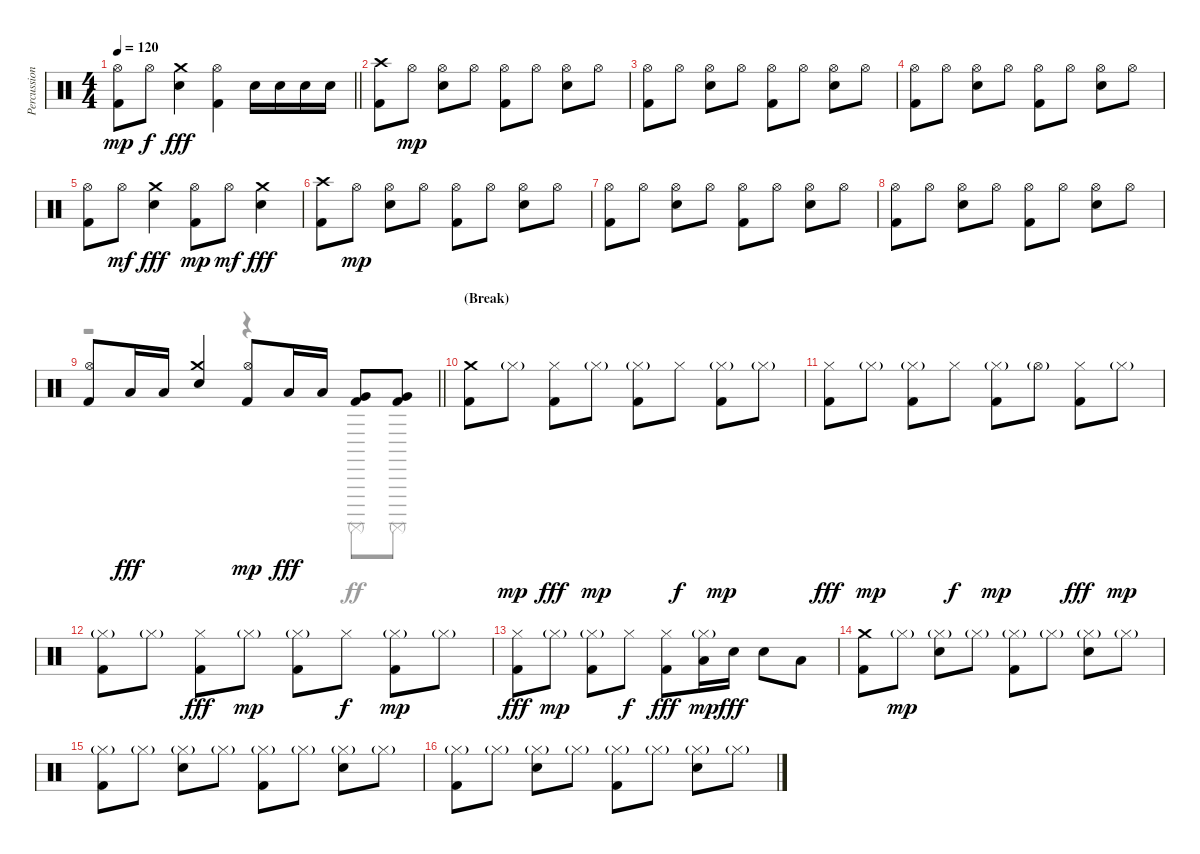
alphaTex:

\track ("Percussions" "Percussion") {instrument percussion}
\staff {score}
\articulation defaults
\voice
\ts (4 4)
\tempo 120
\clef neutral
\barLineRight lightlight
\ks c
("Kick (hit) 2" "Hi-Hat (open)").8{dy mp} "Hi-Hat (open)".8{dy f} ("Electric Snare (hit)" "Crash medium (hit)").4{dy fff} ("Kick (hit) 2" "Hi-Hat (open)").4 "Electric Snare (hit)".16 "Electric Snare (hit)".16 "Electric Snare (hit)".16 "Electric Snare (hit)".16 |
("Kick (hit) 2" "Crash high (hit)").8 "Hi-Hat (open)".8{dy mp} ("Electric Snare (hit)" "Hi-Hat (open)").8 "Hi-Hat (open)".8 ("Kick (hit) 2" "Hi-Hat (open)").8 "Hi-Hat (open)".8 ("Electric Snare (hit)" "Hi-Hat (open)").8 "Hi-Hat (open)".8 |
("Kick (hit) 2" "Hi-Hat (open)").8 "Hi-Hat (open)".8 ("Electric Snare (hit)" "Hi-Hat (open)").8 "Hi-Hat (open)".8 ("Kick (hit) 2" "Hi-Hat (open)").8 "Hi-Hat (open)".8 ("Electric Snare (hit)" "Hi-Hat (open)").8 "Hi-Hat (open)".8 |
("Kick (hit) 2" "Hi-Hat (open)").8 "Hi-Hat (open)".8 ("Electric Snare (hit)" "Hi-Hat (open)").8 "Hi-Hat (open)".8 ("Kick (hit) 2" "Hi-Hat (open)").8 "Hi-Hat (open)".8 ("Electric Snare (hit)" "Hi-Hat (open)").8 "Hi-Hat (open)".8 |
("Kick (hit) 2" "Hi-Hat (open)").8 "Hi-Hat (open)".8{dy mf} ("Electric Snare (hit)" "Crash medium (hit)").4{dy fff} ("Kick (hit) 2" "Hi-Hat (open)").8{dy mp} "Hi-Hat (open)".8{dy mf} ("Electric Snare (hit)" "Crash medium (hit)").4{dy fff} |
("Kick (hit) 2" "Crash high (hit)").8 "Hi-Hat (open)".8{dy mp} ("Electric Snare (hit)" "Hi-Hat (open)").8 "Hi-Hat (open)".8 ("Kick (hit) 2" "Hi-Hat (open)").8 "Hi-Hat (open)".8 ("Electric Snare (hit)" "Hi-Hat (open)").8 "Hi-Hat (open)".8 |
("Kick (hit) 2" "Hi-Hat (open)").8 "Hi-Hat (open)".8 ("Electric Snare (hit)" "Hi-Hat (open)").8 "Hi-Hat (open)".8 ("Kick (hit) 2" "Hi-Hat (open)").8 "Hi-Hat (open)".8 ("Electric Snare (hit)" "Hi-Hat (open)").8 "Hi-Hat (open)".8 |
("Kick (hit) 2" "Hi-Hat (open)").8 "Hi-Hat (open)".8 ("Electric Snare (hit)" "Hi-Hat (open)").8 "Hi-Hat (open)".8 ("Kick (hit) 2" "Hi-Hat (open)").8 "Hi-Hat (open)".8 ("Electric Snare (hit)" "Hi-Hat (open)").8 "Hi-Hat (open)".8 |
\barLineRight lightlight
("Kick (hit) 2" "Hi-Hat (open)").8 "Low Tom (hit)".16{dy fff} "Low Tom (hit)".16 ("Electric Snare (hit)" "Crash medium (hit)").4 ("Kick (hit) 2" "Hi-Hat (open)").8{dy mp} "Low Tom (hit)".16{dy fff} "Low Tom (hit)".16 ("Kick (hit) 2" "Very Low Tom (hit)").8 ("Kick (hit) 2" "Very Low Tom (hit)").8 |
\section ("" "(Break)")
("Kick (hit) 2" "Crash medium (hit)").8 "Hi-Hat (closed)"{g}.8{dy mp} ("Kick (hit) 2" "Hi-Hat (closed)").8{dy fff} "Hi-Hat (closed)"{g}.8{dy mp} ("Kick (hit) 2" "Hi-Hat (closed)"{g}).8 "Hi-Hat (closed)".8{dy f} ("Kick (hit) 2" "Hi-Hat (closed)"{g}).8{dy mp} "Hi-Hat (closed)"{g}.8 |
("Kick (hit) 2" "Hi-Hat (closed)").8{dy fff} "Hi-Hat (closed)"{g}.8{dy mp} ("Kick (hit) 2" "Hi-Hat (closed)"{g}).8 "Hi-Hat (closed)".8{dy f} ("Kick (hit) 2" "Hi-Hat (closed)"{g}).8{dy mp} "Hi-Hat (open)"{g}.8 ("Kick (hit) 2" "Hi-Hat (closed)").8{dy fff} "Hi-Hat (closed)"{g}.8{dy mp} |
("Kick (hit) 2" "Hi-Hat (closed)"{g}).8 "Hi-Hat (closed)"{g}.8 ("Kick (hit) 2" "Hi-Hat (closed)").8{dy fff} "Hi-Hat (closed)"{g}.8{dy mp} ("Kick (hit) 2" "Hi-Hat (closed)"{g}).8 "Hi-Hat (closed)".8{dy f} ("Kick (hit) 2" "Hi-Hat (closed)"{g}).8{dy mp} "Hi-Hat (closed)"{g}.8 |
("Kick (hit) 2" "Hi-Hat (closed)").8{dy fff} "Hi-Hat (closed)"{g}.8{dy mp} ("Kick (hit) 2" "Hi-Hat (closed)"{g}).8 "Hi-Hat (closed)".8{dy f} ("Kick (hit) 2" "Hi-Hat (closed)").8{dy fff} ("Low Tom (hit)" "Hi-Hat (closed)"{g}).16{dy mp} "Electric Snare (hit)".16{dy fff} "Electric Snare (hit)".8 "Low Tom (hit)".8 |
("Kick (hit) 2" "Crash medium (hit)").8 "Hi-Hat (closed)"{g}.8{dy mp} ("Electric Snare (hit)" "Hi-Hat (closed)"{g}).8 "Hi-Hat (closed)"{g}.8 ("Kick (hit) 2" "Hi-Hat (closed)"{g}).8 "Hi-Hat (closed)"{g}.8 ("Electric Snare (hit)" "Hi-Hat (closed)"{g}).8 "Hi-Hat (closed)"{g}.8 |
("Kick (hit) 2" "Hi-Hat (closed)"{g}).8 "Hi-Hat (closed)"{g}.8 ("Electric Snare (hit)" "Hi-Hat (closed)"{g}).8 "Hi-Hat (closed)"{g}.8 ("Kick (hit) 2" "Hi-Hat (closed)"{g}).8 "Hi-Hat (closed)"{g}.8 ("Electric Snare (hit)" "Hi-Hat (closed)"{g}).8 "Hi-Hat (closed)"{g}.8 |
("Kick (hit) 2" "Hi-Hat (closed)"{g}).8 "Hi-Hat (closed)"{g}.8 ("Electric Snare (hit)" "Hi-Hat (closed)"{g}).8 "Hi-Hat (closed)"{g}.8 ("Kick (hit) 2" "Hi-Hat (closed)"{g}).8 "Hi-Hat (closed)"{g}.8 ("Electric Snare (hit)" "Hi-Hat (closed)"{g}).8 "Hi-Hat (closed)"{g}.8
\voice
\clef neutral
\ottava regular
\simile none
\barLineRight lightlight
\ks c
|
|
|
|
|
|
|
|
\barLineRight lightlight
r.2 r.4 "Surdo (mute)".8{dy ff} "Surdo (mute)".8 |
|
|
|
|
|
|
